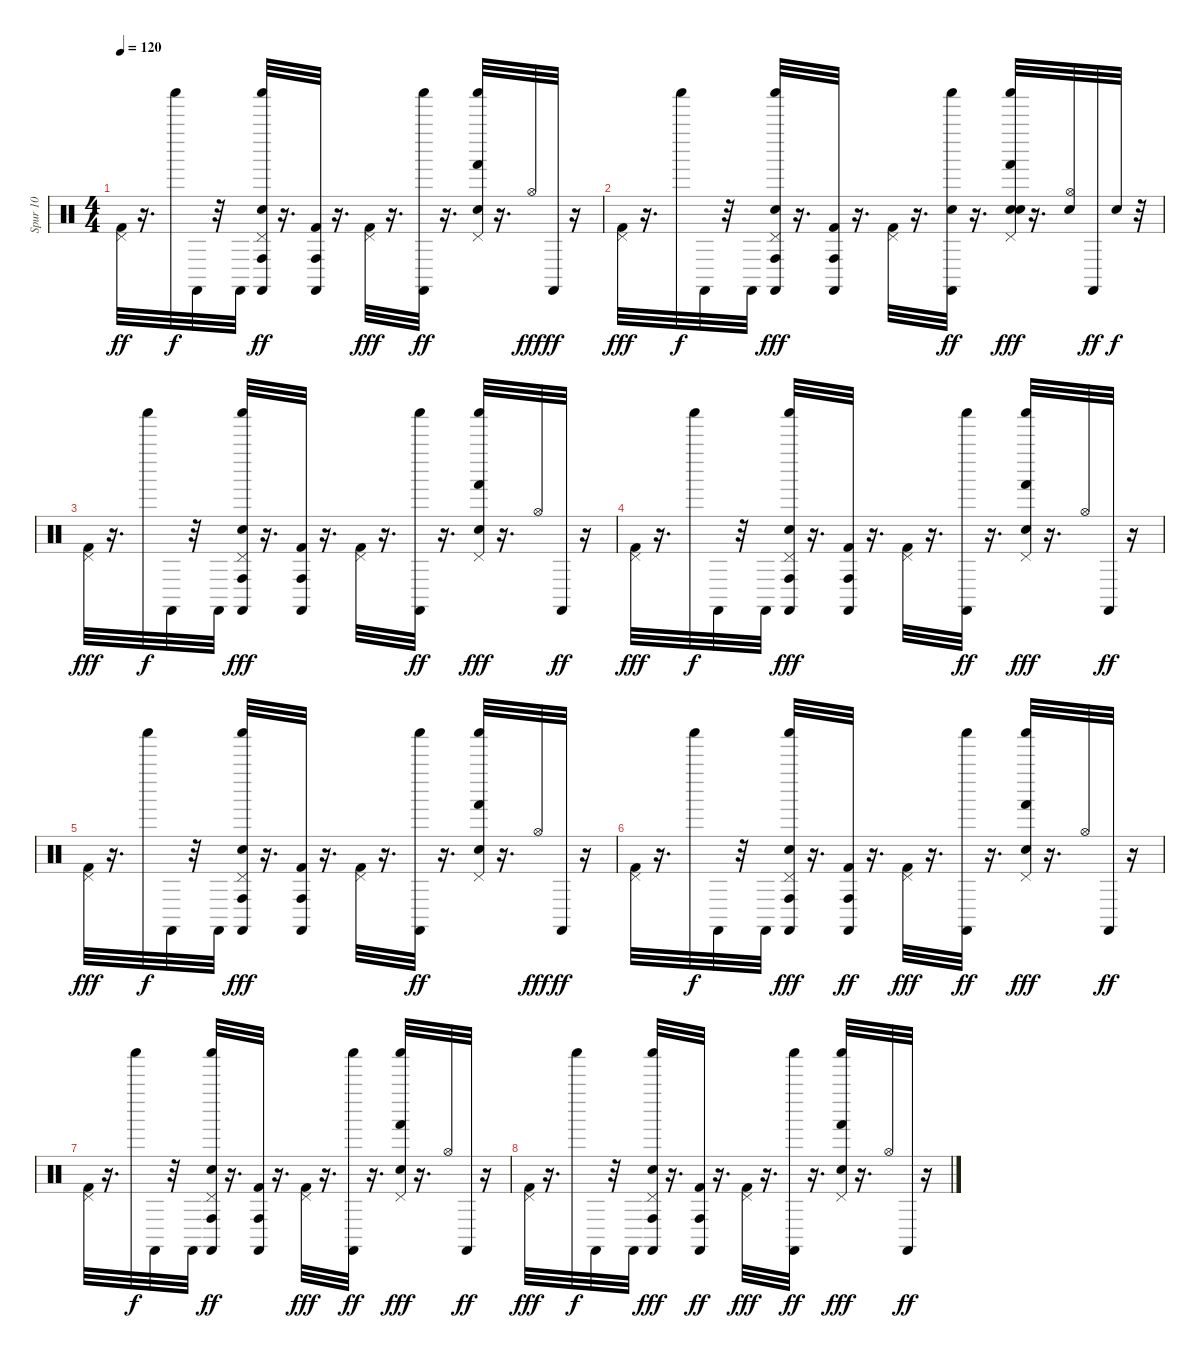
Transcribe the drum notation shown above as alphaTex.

\track ("Spur 10" "Spur 10") {instrument percussion}
\staff {score}
\articulation defaults
\ts (4 4)
\tempo 120
\clef neutral
\ks c
("Kick (hit) 2" "Pedal Hi-Hat (hit)").32{dy ff} r.16{d} "Shaker (hit)".32{dy f} "Castanets (hit)".32 r.32 "Castanets (hit)".32 ("Conga high (hit)" "Snare (hit) 2" "Shaker (hit)" "Pedal Hi-Hat (hit)" "Castanets (hit)").32{dy ff} r.16{d} ("Conga high (hit)" "Castanets (hit)" "Kick (hit) 2").32 r.16{d} ("Kick (hit) 2" "Pedal Hi-Hat (hit)").32{dy fff} r.16{d} ("Castanets (hit)" "Shaker (hit)").32{dy ff} r.16{d} ("Pedal Hi-Hat (hit)" "Snare (hit) 2" "Hand (hit)" "Shaker (hit)").32 r.16{d} "Hi-Hat (open)".32{dy fff} "Castanets (hit)".32{dy ff} r.16 |
("Pedal Hi-Hat (hit)" "Kick (hit) 2").32{dy fff} r.16{d} "Shaker (hit)".32{dy f} "Castanets (hit)".32 r.32 "Castanets (hit)".32 ("Shaker (hit)" "Castanets (hit)" "Conga high (hit)" "Pedal Hi-Hat (hit)" "Snare (hit) 2").32{dy fff} r.16{d} ("Castanets (hit)" "Kick (hit) 2" "Conga high (hit)").32 r.16{d} ("Pedal Hi-Hat (hit)" "Kick (hit) 2").32 r.16{d} ("Electric Snare (hit)" "Castanets (hit)" "Shaker (hit)").32{dy ff} r.16{d} ("Electric Snare (hit)" "Shaker (hit)" "Snare (hit) 2" "Pedal Hi-Hat (hit)" "Hand (hit)").32{dy fff} r.16{d} ("Snare (hit) 2" "Hi-Hat (open)").32 "Castanets (hit)".32{dy ff} "Snare (hit) 2".32{dy f} r.32 |
("Pedal Hi-Hat (hit)" "Kick (hit) 2").32{dy fff} r.16{d} "Shaker (hit)".32{dy f} "Castanets (hit)".32 r.32 "Castanets (hit)".32 ("Shaker (hit)" "Conga high (hit)" "Pedal Hi-Hat (hit)" "Castanets (hit)" "Snare (hit) 2").32{dy fff} r.16{d} ("Kick (hit) 2" "Castanets (hit)" "Conga high (hit)").32 r.16{d} ("Kick (hit) 2" "Pedal Hi-Hat (hit)").32 r.16{d} ("Shaker (hit)" "Castanets (hit)").32{dy ff} r.16{d} ("Shaker (hit)" "Hand (hit)" "Snare (hit) 2" "Pedal Hi-Hat (hit)").32{dy fff} r.16{d} "Hi-Hat (open)".32 "Castanets (hit)".32{dy ff} r.16 |
("Pedal Hi-Hat (hit)" "Kick (hit) 2").32{dy fff} r.16{d} "Shaker (hit)".32{dy f} "Castanets (hit)".32 r.32 "Castanets (hit)".32 ("Castanets (hit)" "Pedal Hi-Hat (hit)" "Snare (hit) 2" "Shaker (hit)" "Conga high (hit)").32{dy fff} r.16{d} ("Castanets (hit)" "Kick (hit) 2" "Conga high (hit)").32 r.16{d} ("Pedal Hi-Hat (hit)" "Kick (hit) 2").32 r.16{d} ("Castanets (hit)" "Shaker (hit)").32{dy ff} r.16{d} ("Shaker (hit)" "Pedal Hi-Hat (hit)" "Hand (hit)" "Snare (hit) 2").32{dy fff} r.16{d} "Hi-Hat (open)".32 "Castanets (hit)".32{dy ff} r.16 |
("Pedal Hi-Hat (hit)" "Kick (hit) 2").32{dy fff} r.16{d} "Shaker (hit)".32{dy f} "Castanets (hit)".32 r.32 "Castanets (hit)".32 ("Snare (hit) 2" "Conga high (hit)" "Shaker (hit)" "Castanets (hit)" "Pedal Hi-Hat (hit)").32{dy fff} r.16{d} ("Kick (hit) 2" "Castanets (hit)" "Conga high (hit)").32 r.16{d} ("Kick (hit) 2" "Pedal Hi-Hat (hit)").32 r.16{d} ("Castanets (hit)" "Shaker (hit)").32{dy ff} r.16{d} ("Hand (hit)" "Pedal Hi-Hat (hit)" "Snare (hit) 2" "Shaker (hit)").32 r.16{d} "Hi-Hat (open)".32{dy fff} "Castanets (hit)".32{dy ff} r.16 |
("Kick (hit) 2" "Pedal Hi-Hat (hit)").32 r.16{d} "Shaker (hit)".32{dy f} "Castanets (hit)".32 r.32 "Castanets (hit)".32 ("Castanets (hit)" "Snare (hit) 2" "Shaker (hit)" "Pedal Hi-Hat (hit)" "Conga high (hit)").32{dy fff} r.16{d} ("Kick (hit) 2" "Conga high (hit)" "Castanets (hit)").32{dy ff} r.16{d} ("Pedal Hi-Hat (hit)" "Kick (hit) 2").32{dy fff} r.16{d} ("Castanets (hit)" "Shaker (hit)").32{dy ff} r.16{d} ("Hand (hit)" "Shaker (hit)" "Pedal Hi-Hat (hit)" "Snare (hit) 2").32{dy fff} r.16{d} "Hi-Hat (open)".32 "Castanets (hit)".32{dy ff} r.16 |
("Kick (hit) 2" "Pedal Hi-Hat (hit)").32 r.16{d} "Shaker (hit)".32{dy f} "Castanets (hit)".32 r.32 "Castanets (hit)".32 ("Conga high (hit)" "Snare (hit) 2" "Pedal Hi-Hat (hit)" "Shaker (hit)" "Castanets (hit)").32{dy ff} r.16{d} ("Conga high (hit)" "Kick (hit) 2" "Castanets (hit)").32 r.16{d} ("Pedal Hi-Hat (hit)" "Kick (hit) 2").32{dy fff} r.16{d} ("Shaker (hit)" "Castanets (hit)").32{dy ff} r.16{d} ("Shaker (hit)" "Snare (hit) 2" "Hand (hit)" "Pedal Hi-Hat (hit)").32{dy fff} r.16{d} "Hi-Hat (open)".32 "Castanets (hit)".32{dy ff} r.16 |
("Pedal Hi-Hat (hit)" "Kick (hit) 2").32{dy fff} r.16{d} "Shaker (hit)".32{dy f} "Castanets (hit)".32 r.32 "Castanets (hit)".32 ("Shaker (hit)" "Castanets (hit)" "Conga high (hit)" "Snare (hit) 2" "Pedal Hi-Hat (hit)").32{dy fff} r.16{d} ("Conga high (hit)" "Castanets (hit)" "Kick (hit) 2").32{dy ff} r.16{d} ("Pedal Hi-Hat (hit)" "Kick (hit) 2").32{dy fff} r.16{d} ("Castanets (hit)" "Shaker (hit)").32{dy ff} r.16{d} ("Hand (hit)" "Shaker (hit)" "Pedal Hi-Hat (hit)" "Snare (hit) 2").32{dy fff} r.16{d} "Hi-Hat (open)".32 "Castanets (hit)".32{dy ff} r.16
